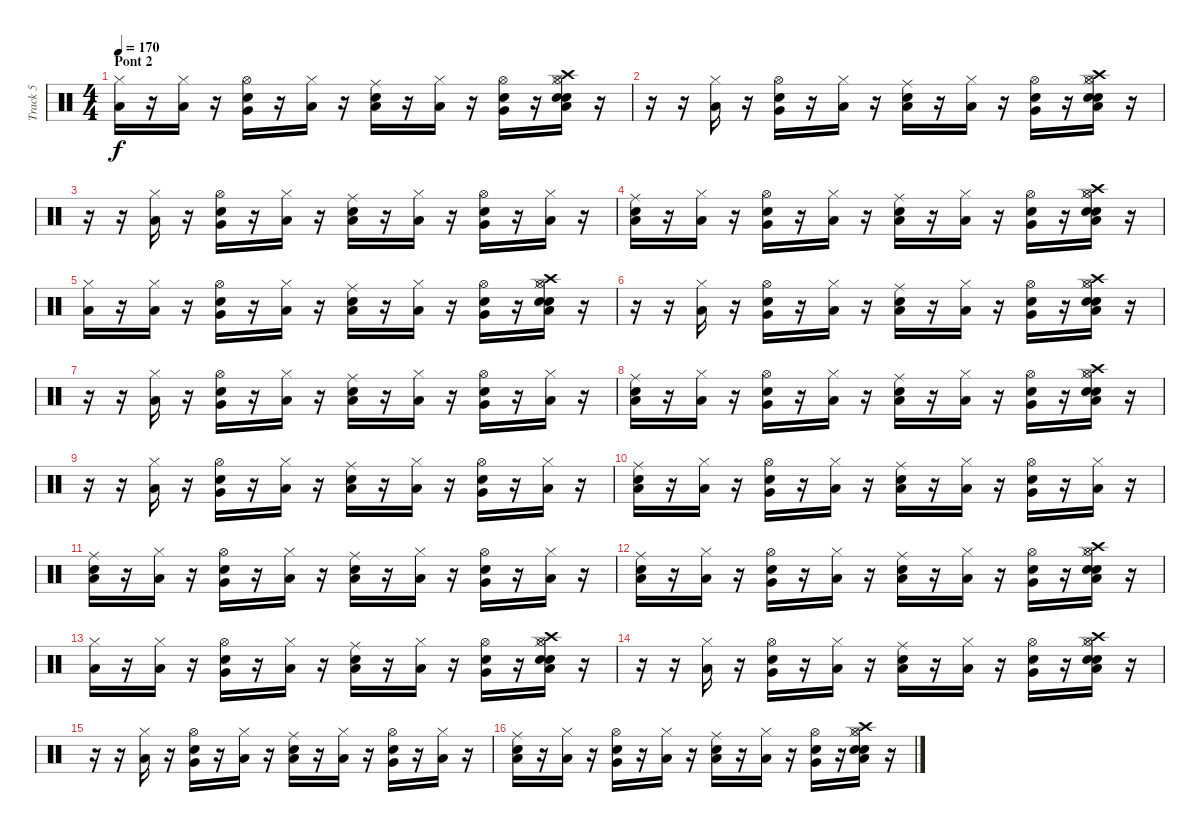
\track ("Track 5" "Track 5") {instrument percussion}
\staff {score}
\articulation defaults
\ts (4 4)
\section ("" "Pont 2")
\tempo 170
\clef neutral
\ks c
("Low Tom (hit)" "Hi-Hat (closed)").16{dy f} r.16 ("Low Tom (hit)" "Hi-Hat (closed)").16 r.16 ("Very Low Tom (hit)" "Electric Snare (hit)" "Hi-Hat (open)").16 r.16 ("Low Tom (hit)" "Hi-Hat (closed)").16 r.16 ("Ride (middle)" "Low Tom (hit)" "Snare (hit) 2").16 r.16 ("Low Tom (hit)" "Hi-Hat (closed)").16 r.16 ("Very Low Tom (hit)" "Electric Snare (hit)" "Hi-Hat (open)").16 r.16 ("Low Tom (hit)" "Hi-Hat (closed)" "Snare (hit) 2" "Crash high (hit)" "Electric Snare (hit)" "Hi-Hat (open)").16 r.16 |
r.16 r.16 ("Low Tom (hit)" "Hi-Hat (closed)").16 r.16 ("Very Low Tom (hit)" "Electric Snare (hit)" "Hi-Hat (open)").16 r.16 ("Low Tom (hit)" "Hi-Hat (closed)").16 r.16 ("Ride (middle)" "Low Tom (hit)" "Snare (hit) 2").16 r.16 ("Low Tom (hit)" "Hi-Hat (closed)").16 r.16 ("Very Low Tom (hit)" "Electric Snare (hit)" "Hi-Hat (open)").16 r.16 ("Low Tom (hit)" "Hi-Hat (closed)" "Snare (hit) 2" "Crash high (hit)" "Electric Snare (hit)" "Hi-Hat (open)").16 r.16 |
r.16 r.16 ("Low Tom (hit)" "Hi-Hat (closed)").16 r.16 ("Very Low Tom (hit)" "Electric Snare (hit)" "Hi-Hat (open)").16 r.16 ("Low Tom (hit)" "Hi-Hat (closed)").16 r.16 ("Ride (middle)" "Low Tom (hit)" "Snare (hit) 2").16 r.16 ("Low Tom (hit)" "Hi-Hat (closed)").16 r.16 ("Very Low Tom (hit)" "Electric Snare (hit)" "Hi-Hat (open)").16 r.16 ("Low Tom (hit)" "Hi-Hat (closed)").16 r.16 |
("Ride (middle)" "Low Tom (hit)" "Snare (hit) 2").16 r.16 ("Low Tom (hit)" "Hi-Hat (closed)").16 r.16 ("Very Low Tom (hit)" "Electric Snare (hit)" "Hi-Hat (open)").16 r.16 ("Low Tom (hit)" "Hi-Hat (closed)").16 r.16 ("Ride (middle)" "Low Tom (hit)" "Snare (hit) 2").16 r.16 ("Low Tom (hit)" "Hi-Hat (closed)").16 r.16 ("Very Low Tom (hit)" "Electric Snare (hit)" "Hi-Hat (open)").16 r.16 ("Low Tom (hit)" "Hi-Hat (closed)" "Snare (hit) 2" "Crash high (hit)" "Electric Snare (hit)" "Hi-Hat (open)").16 r.16 |
("Low Tom (hit)" "Hi-Hat (closed)").16 r.16 ("Low Tom (hit)" "Hi-Hat (closed)").16 r.16 ("Very Low Tom (hit)" "Electric Snare (hit)" "Hi-Hat (open)").16 r.16 ("Low Tom (hit)" "Hi-Hat (closed)").16 r.16 ("Ride (middle)" "Low Tom (hit)" "Snare (hit) 2").16 r.16 ("Low Tom (hit)" "Hi-Hat (closed)").16 r.16 ("Very Low Tom (hit)" "Electric Snare (hit)" "Hi-Hat (open)").16 r.16 ("Low Tom (hit)" "Hi-Hat (closed)" "Snare (hit) 2" "Crash high (hit)" "Electric Snare (hit)" "Hi-Hat (open)").16 r.16 |
r.16 r.16 ("Low Tom (hit)" "Hi-Hat (closed)").16 r.16 ("Very Low Tom (hit)" "Electric Snare (hit)" "Hi-Hat (open)").16 r.16 ("Low Tom (hit)" "Hi-Hat (closed)").16 r.16 ("Ride (middle)" "Low Tom (hit)" "Snare (hit) 2").16 r.16 ("Low Tom (hit)" "Hi-Hat (closed)").16 r.16 ("Very Low Tom (hit)" "Electric Snare (hit)" "Hi-Hat (open)").16 r.16 ("Low Tom (hit)" "Hi-Hat (closed)" "Snare (hit) 2" "Crash high (hit)" "Electric Snare (hit)" "Hi-Hat (open)").16 r.16 |
r.16 r.16 ("Low Tom (hit)" "Hi-Hat (closed)").16 r.16 ("Very Low Tom (hit)" "Electric Snare (hit)" "Hi-Hat (open)").16 r.16 ("Low Tom (hit)" "Hi-Hat (closed)").16 r.16 ("Ride (middle)" "Low Tom (hit)" "Snare (hit) 2").16 r.16 ("Low Tom (hit)" "Hi-Hat (closed)").16 r.16 ("Very Low Tom (hit)" "Electric Snare (hit)" "Hi-Hat (open)").16 r.16 ("Low Tom (hit)" "Hi-Hat (closed)").16 r.16 |
("Ride (middle)" "Low Tom (hit)" "Snare (hit) 2").16 r.16 ("Low Tom (hit)" "Hi-Hat (closed)").16 r.16 ("Very Low Tom (hit)" "Electric Snare (hit)" "Hi-Hat (open)").16 r.16 ("Low Tom (hit)" "Hi-Hat (closed)").16 r.16 ("Ride (middle)" "Low Tom (hit)" "Snare (hit) 2").16 r.16 ("Low Tom (hit)" "Hi-Hat (closed)").16 r.16 ("Very Low Tom (hit)" "Electric Snare (hit)" "Hi-Hat (open)").16 r.16 ("Low Tom (hit)" "Hi-Hat (closed)" "Snare (hit) 2" "Crash high (hit)" "Electric Snare (hit)" "Hi-Hat (open)").16 r.16 |
r.16 r.16 ("Low Tom (hit)" "Hi-Hat (closed)").16 r.16 ("Very Low Tom (hit)" "Electric Snare (hit)" "Hi-Hat (open)").16 r.16 ("Low Tom (hit)" "Hi-Hat (closed)").16 r.16 ("Ride (middle)" "Low Tom (hit)" "Snare (hit) 2").16 r.16 ("Low Tom (hit)" "Hi-Hat (closed)").16 r.16 ("Very Low Tom (hit)" "Electric Snare (hit)" "Hi-Hat (open)").16 r.16 ("Low Tom (hit)" "Hi-Hat (closed)").16 r.16 |
("Ride (middle)" "Low Tom (hit)" "Snare (hit) 2").16 r.16 ("Low Tom (hit)" "Hi-Hat (closed)").16 r.16 ("Very Low Tom (hit)" "Electric Snare (hit)" "Hi-Hat (open)").16 r.16 ("Low Tom (hit)" "Hi-Hat (closed)").16 r.16 ("Ride (middle)" "Low Tom (hit)" "Snare (hit) 2").16 r.16 ("Low Tom (hit)" "Hi-Hat (closed)").16 r.16 ("Very Low Tom (hit)" "Electric Snare (hit)" "Hi-Hat (open)").16 r.16 ("Low Tom (hit)" "Hi-Hat (closed)").16 r.16 |
("Ride (middle)" "Low Tom (hit)" "Snare (hit) 2").16 r.16 ("Low Tom (hit)" "Hi-Hat (closed)").16 r.16 ("Very Low Tom (hit)" "Electric Snare (hit)" "Hi-Hat (open)").16 r.16 ("Low Tom (hit)" "Hi-Hat (closed)").16 r.16 ("Ride (middle)" "Low Tom (hit)" "Snare (hit) 2").16 r.16 ("Low Tom (hit)" "Hi-Hat (closed)").16 r.16 ("Very Low Tom (hit)" "Electric Snare (hit)" "Hi-Hat (open)").16 r.16 ("Low Tom (hit)" "Hi-Hat (closed)").16 r.16 |
("Ride (middle)" "Low Tom (hit)" "Snare (hit) 2").16 r.16 ("Low Tom (hit)" "Hi-Hat (closed)").16 r.16 ("Very Low Tom (hit)" "Electric Snare (hit)" "Hi-Hat (open)").16 r.16 ("Low Tom (hit)" "Hi-Hat (closed)").16 r.16 ("Ride (middle)" "Low Tom (hit)" "Snare (hit) 2").16 r.16 ("Low Tom (hit)" "Hi-Hat (closed)").16 r.16 ("Very Low Tom (hit)" "Electric Snare (hit)" "Hi-Hat (open)").16 r.16 ("Low Tom (hit)" "Hi-Hat (closed)" "Snare (hit) 2" "Crash high (hit)" "Electric Snare (hit)" "Hi-Hat (open)").16 r.16 |
("Low Tom (hit)" "Hi-Hat (closed)").16 r.16 ("Low Tom (hit)" "Hi-Hat (closed)").16 r.16 ("Very Low Tom (hit)" "Electric Snare (hit)" "Hi-Hat (open)").16 r.16 ("Low Tom (hit)" "Hi-Hat (closed)").16 r.16 ("Ride (middle)" "Low Tom (hit)" "Snare (hit) 2").16 r.16 ("Low Tom (hit)" "Hi-Hat (closed)").16 r.16 ("Very Low Tom (hit)" "Electric Snare (hit)" "Hi-Hat (open)").16 r.16 ("Low Tom (hit)" "Hi-Hat (closed)" "Snare (hit) 2" "Crash high (hit)" "Electric Snare (hit)" "Hi-Hat (open)").16 r.16 |
r.16 r.16 ("Low Tom (hit)" "Hi-Hat (closed)").16 r.16 ("Very Low Tom (hit)" "Electric Snare (hit)" "Hi-Hat (open)").16 r.16 ("Low Tom (hit)" "Hi-Hat (closed)").16 r.16 ("Ride (middle)" "Low Tom (hit)" "Snare (hit) 2").16 r.16 ("Low Tom (hit)" "Hi-Hat (closed)").16 r.16 ("Very Low Tom (hit)" "Electric Snare (hit)" "Hi-Hat (open)").16 r.16 ("Low Tom (hit)" "Hi-Hat (closed)" "Snare (hit) 2" "Crash high (hit)" "Electric Snare (hit)" "Hi-Hat (open)").16 r.16 |
r.16 r.16 ("Low Tom (hit)" "Hi-Hat (closed)").16 r.16 ("Very Low Tom (hit)" "Electric Snare (hit)" "Hi-Hat (open)").16 r.16 ("Low Tom (hit)" "Hi-Hat (closed)").16 r.16 ("Ride (middle)" "Low Tom (hit)" "Snare (hit) 2").16 r.16 ("Low Tom (hit)" "Hi-Hat (closed)").16 r.16 ("Very Low Tom (hit)" "Electric Snare (hit)" "Hi-Hat (open)").16 r.16 ("Low Tom (hit)" "Hi-Hat (closed)").16 r.16 |
("Ride (middle)" "Low Tom (hit)" "Snare (hit) 2").16 r.16 ("Low Tom (hit)" "Hi-Hat (closed)").16 r.16 ("Very Low Tom (hit)" "Electric Snare (hit)" "Hi-Hat (open)").16 r.16 ("Low Tom (hit)" "Hi-Hat (closed)").16 r.16 ("Ride (middle)" "Low Tom (hit)" "Snare (hit) 2").16 r.16 ("Low Tom (hit)" "Hi-Hat (closed)").16 r.16 ("Very Low Tom (hit)" "Electric Snare (hit)" "Hi-Hat (open)").16 r.16 ("Low Tom (hit)" "Hi-Hat (closed)" "Snare (hit) 2" "Crash high (hit)" "Electric Snare (hit)" "Hi-Hat (open)").16 r.16
